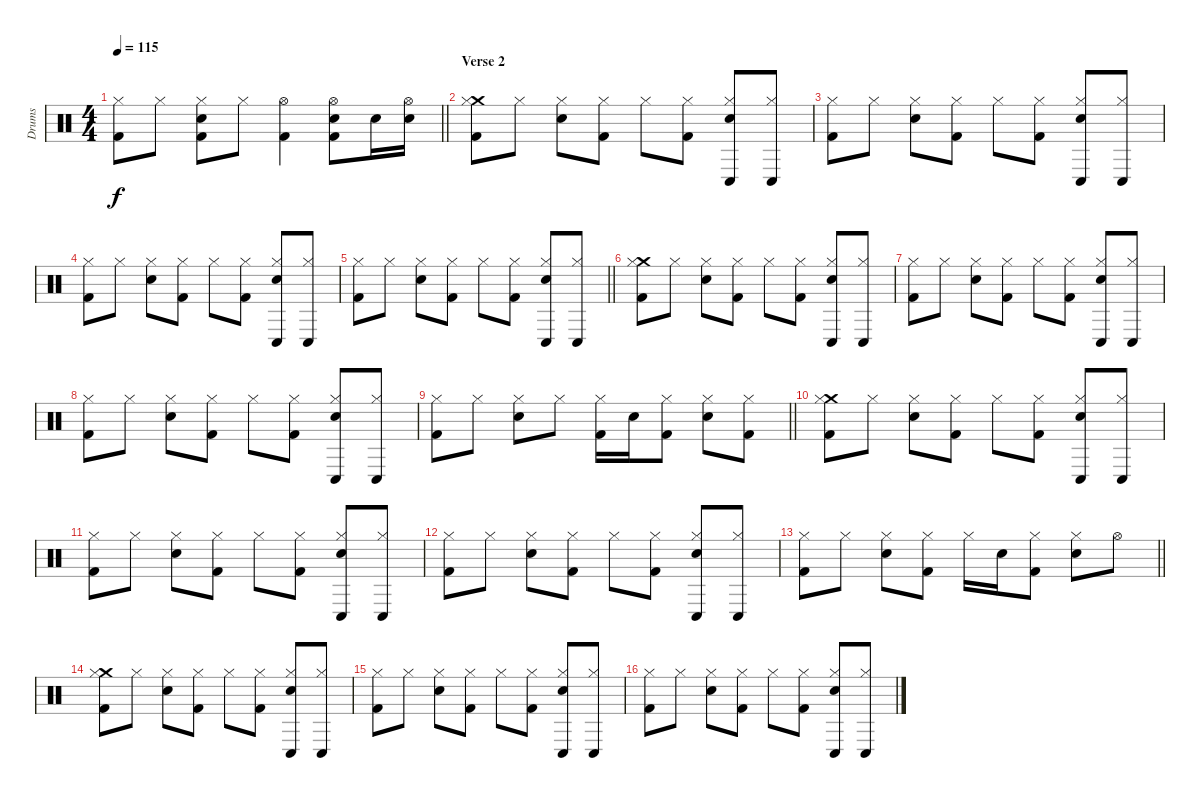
\track ("Drums" "Drums") {instrument percussion}
\staff {score}
\articulation defaults
\ts (4 4)
\tempo 115
\clef neutral
\barLineRight lightlight
\ks c
("Kick (hit) 2" "Hi-Hat (closed)").8{dy f} "Hi-Hat (closed)".8 ("Kick (hit) 2" "Electric Snare (hit)" "Hi-Hat (closed)").8 "Hi-Hat (closed)".8 ("Kick (hit) 2" "Hi-Hat (open)").4 ("Kick (hit) 2" "Electric Snare (hit)" "Hi-Hat (open)").8 "Electric Snare (hit)".16 ("Electric Snare (hit)" "Hi-Hat (open)").16 |
\section ("" "Verse 2")
("Crash medium (hit)" "Kick (hit) 2" "Hi-Hat (closed)").8 "Hi-Hat (closed)".8 ("Electric Snare (hit)" "Hi-Hat (closed)").8 ("Kick (hit) 2" "Hi-Hat (closed)").8 "Hi-Hat (closed)".8 ("Kick (hit) 2" "Hi-Hat (closed)").8 ("Conga low (hit)" "Electric Snare (hit)" "Hi-Hat (closed)").8 ("Conga low (hit)" "Hi-Hat (closed)").8 |
("Kick (hit) 2" "Hi-Hat (closed)").8 "Hi-Hat (closed)".8 ("Electric Snare (hit)" "Hi-Hat (closed)").8 ("Kick (hit) 2" "Hi-Hat (closed)").8 "Hi-Hat (closed)".8 ("Kick (hit) 2" "Hi-Hat (closed)").8 ("Conga low (hit)" "Electric Snare (hit)" "Hi-Hat (closed)").8 ("Conga low (hit)" "Hi-Hat (closed)").8 |
("Kick (hit) 2" "Hi-Hat (closed)").8 "Hi-Hat (closed)".8 ("Electric Snare (hit)" "Hi-Hat (closed)").8 ("Kick (hit) 2" "Hi-Hat (closed)").8 "Hi-Hat (closed)".8 ("Kick (hit) 2" "Hi-Hat (closed)").8 ("Conga low (hit)" "Electric Snare (hit)" "Hi-Hat (closed)").8 ("Conga low (hit)" "Hi-Hat (closed)").8 |
\barLineRight lightlight
("Kick (hit) 2" "Hi-Hat (closed)").8 "Hi-Hat (closed)".8 ("Electric Snare (hit)" "Hi-Hat (closed)").8 ("Kick (hit) 2" "Hi-Hat (closed)").8 "Hi-Hat (closed)".8 ("Kick (hit) 2" "Hi-Hat (closed)").8 ("Conga low (hit)" "Electric Snare (hit)" "Hi-Hat (closed)").8 ("Conga low (hit)" "Hi-Hat (closed)").8 |
("Crash medium (hit)" "Kick (hit) 2" "Hi-Hat (closed)").8 "Hi-Hat (closed)".8 ("Electric Snare (hit)" "Hi-Hat (closed)").8 ("Kick (hit) 2" "Hi-Hat (closed)").8 "Hi-Hat (closed)".8 ("Kick (hit) 2" "Hi-Hat (closed)").8 ("Conga low (hit)" "Electric Snare (hit)" "Hi-Hat (closed)").8 ("Conga low (hit)" "Hi-Hat (closed)").8 |
("Kick (hit) 2" "Hi-Hat (closed)").8 "Hi-Hat (closed)".8 ("Electric Snare (hit)" "Hi-Hat (closed)").8 ("Kick (hit) 2" "Hi-Hat (closed)").8 "Hi-Hat (closed)".8 ("Kick (hit) 2" "Hi-Hat (closed)").8 ("Conga low (hit)" "Electric Snare (hit)" "Hi-Hat (closed)").8 ("Conga low (hit)" "Hi-Hat (closed)").8 |
("Kick (hit) 2" "Hi-Hat (closed)").8 "Hi-Hat (closed)".8 ("Electric Snare (hit)" "Hi-Hat (closed)").8 ("Kick (hit) 2" "Hi-Hat (closed)").8 "Hi-Hat (closed)".8 ("Kick (hit) 2" "Hi-Hat (closed)").8 ("Conga low (hit)" "Electric Snare (hit)" "Hi-Hat (closed)").8 ("Conga low (hit)" "Hi-Hat (closed)").8 |
\barLineRight lightlight
("Kick (hit) 2" "Hi-Hat (closed)").8 "Hi-Hat (closed)".8 ("Electric Snare (hit)" "Hi-Hat (closed)").8 "Hi-Hat (closed)".8 ("Kick (hit) 2" "Hi-Hat (closed)").16 "Electric Snare (hit)".16 ("Kick (hit) 2" "Hi-Hat (closed)").8 ("Electric Snare (hit)" "Hi-Hat (closed)").8 ("Kick (hit) 2" "Hi-Hat (closed)").8 |
("Crash medium (hit)" "Kick (hit) 2" "Hi-Hat (closed)").8 "Hi-Hat (closed)".8 ("Electric Snare (hit)" "Hi-Hat (closed)").8 ("Kick (hit) 2" "Hi-Hat (closed)").8 "Hi-Hat (closed)".8 ("Kick (hit) 2" "Hi-Hat (closed)").8 ("Conga low (hit)" "Electric Snare (hit)" "Hi-Hat (closed)").8 ("Conga low (hit)" "Hi-Hat (closed)").8 |
("Kick (hit) 2" "Hi-Hat (closed)").8 "Hi-Hat (closed)".8 ("Electric Snare (hit)" "Hi-Hat (closed)").8 ("Kick (hit) 2" "Hi-Hat (closed)").8 "Hi-Hat (closed)".8 ("Kick (hit) 2" "Hi-Hat (closed)").8 ("Conga low (hit)" "Electric Snare (hit)" "Hi-Hat (closed)").8 ("Conga low (hit)" "Hi-Hat (closed)").8 |
("Kick (hit) 2" "Hi-Hat (closed)").8 "Hi-Hat (closed)".8 ("Electric Snare (hit)" "Hi-Hat (closed)").8 ("Kick (hit) 2" "Hi-Hat (closed)").8 "Hi-Hat (closed)".8 ("Kick (hit) 2" "Hi-Hat (closed)").8 ("Conga low (hit)" "Electric Snare (hit)" "Hi-Hat (closed)").8 ("Conga low (hit)" "Hi-Hat (closed)").8 |
\barLineRight lightlight
("Kick (hit) 2" "Hi-Hat (closed)").8 "Hi-Hat (closed)".8 ("Electric Snare (hit)" "Hi-Hat (closed)").8 ("Kick (hit) 2" "Hi-Hat (closed)").8 "Hi-Hat (closed)".16 "Electric Snare (hit)".16 ("Kick (hit) 2" "Hi-Hat (closed)").8 ("Electric Snare (hit)" "Hi-Hat (closed)").8 "Hi-Hat (open)".8 |
("Crash medium (hit)" "Kick (hit) 2" "Hi-Hat (closed)").8 "Hi-Hat (closed)".8 ("Electric Snare (hit)" "Hi-Hat (closed)").8 ("Kick (hit) 2" "Hi-Hat (closed)").8 "Hi-Hat (closed)".8 ("Kick (hit) 2" "Hi-Hat (closed)").8 ("Conga low (hit)" "Electric Snare (hit)" "Hi-Hat (closed)").8 ("Conga low (hit)" "Hi-Hat (closed)").8 |
("Kick (hit) 2" "Hi-Hat (closed)").8 "Hi-Hat (closed)".8 ("Electric Snare (hit)" "Hi-Hat (closed)").8 ("Kick (hit) 2" "Hi-Hat (closed)").8 "Hi-Hat (closed)".8 ("Kick (hit) 2" "Hi-Hat (closed)").8 ("Conga low (hit)" "Electric Snare (hit)" "Hi-Hat (closed)").8 ("Conga low (hit)" "Hi-Hat (closed)").8 |
("Kick (hit) 2" "Hi-Hat (closed)").8 "Hi-Hat (closed)".8 ("Electric Snare (hit)" "Hi-Hat (closed)").8 ("Kick (hit) 2" "Hi-Hat (closed)").8 "Hi-Hat (closed)".8 ("Kick (hit) 2" "Hi-Hat (closed)").8 ("Conga low (hit)" "Electric Snare (hit)" "Hi-Hat (closed)").8 ("Conga low (hit)" "Hi-Hat (closed)").8
